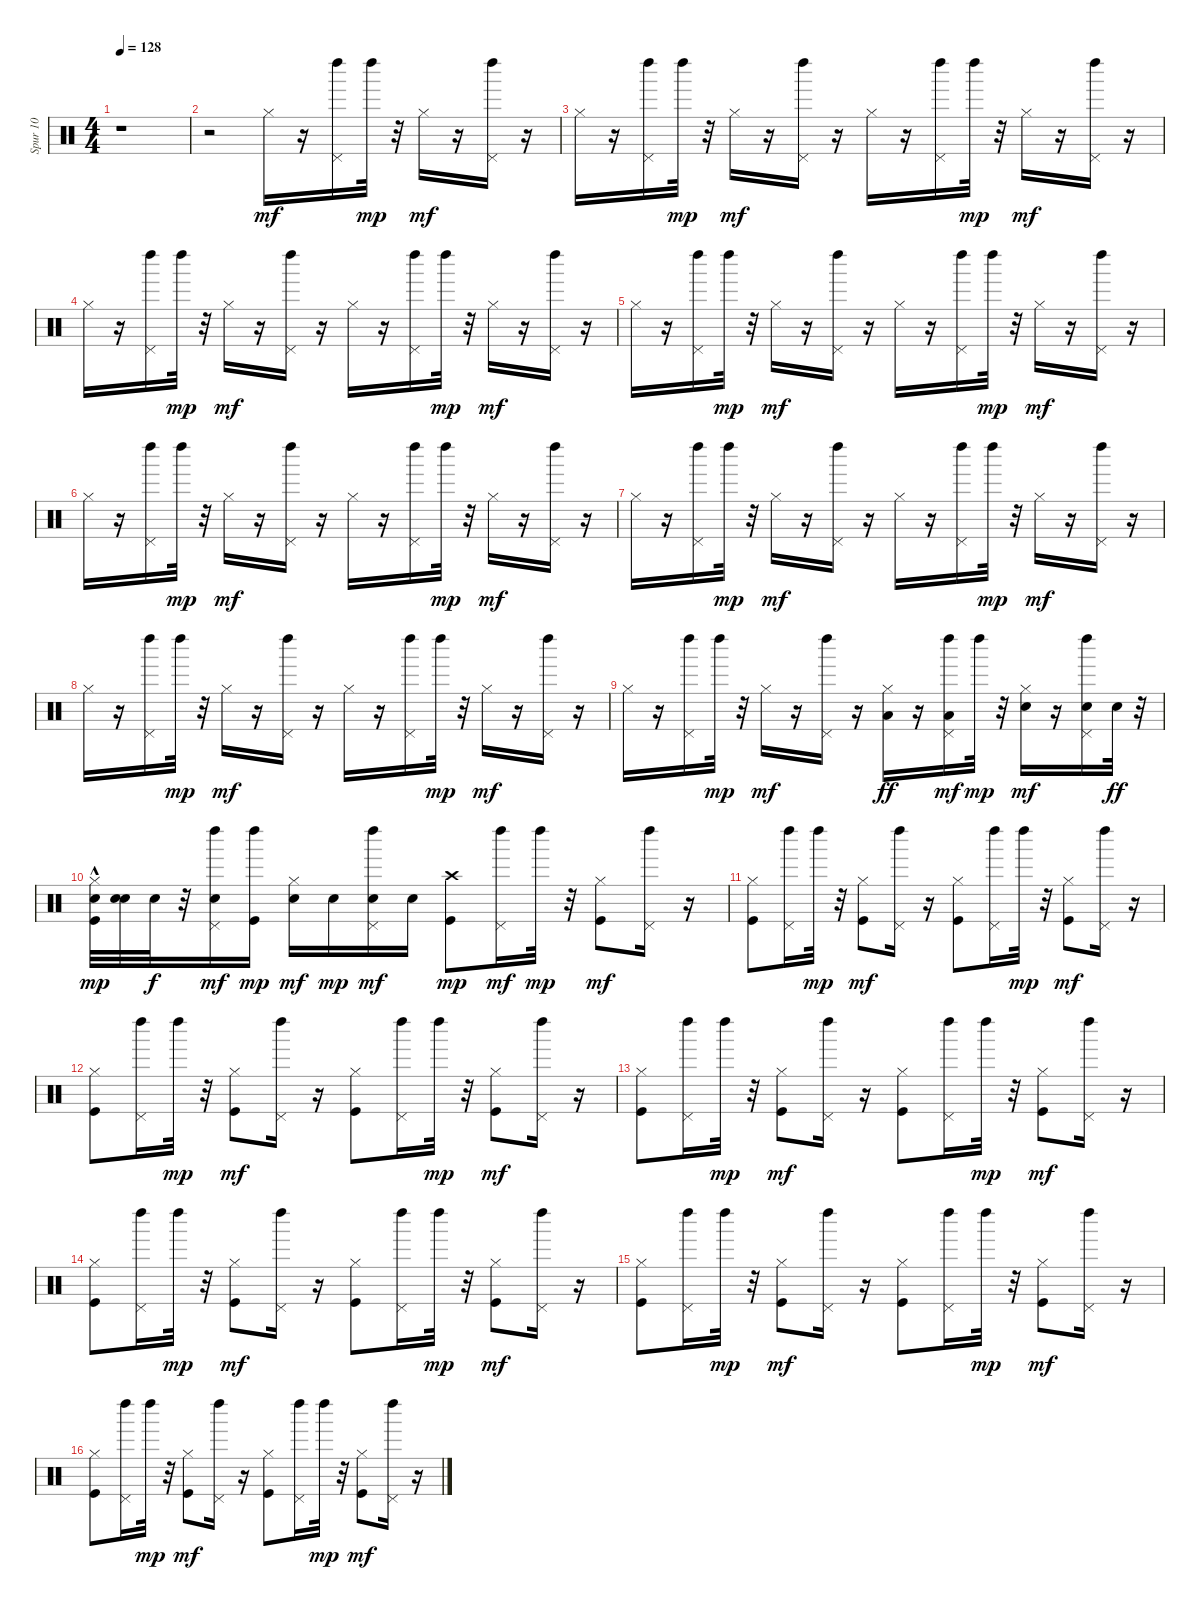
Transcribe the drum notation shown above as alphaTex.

\track ("Spur 10" "Spur 10") {instrument percussion}
\staff {score}
\articulation defaults
\ts (4 4)
\tempo 128
\clef neutral
\ks c
r.1{dy mf} |
r.2 "Hi-Hat (closed)".16 r.16 ("Pedal Hi-Hat (hit)" "Left Maraca (hit)").16 "Left Maraca (hit)".32{dy mp} r.32 "Hi-Hat (closed)".16{dy mf} r.16 ("Pedal Hi-Hat (hit)" "Left Maraca (hit)").16 r.16 |
"Hi-Hat (closed)".16 r.16 ("Pedal Hi-Hat (hit)" "Left Maraca (hit)").16 "Left Maraca (hit)".32{dy mp} r.32 "Hi-Hat (closed)".16{dy mf} r.16 ("Pedal Hi-Hat (hit)" "Left Maraca (hit)").16 r.16 "Hi-Hat (closed)".16 r.16 ("Pedal Hi-Hat (hit)" "Left Maraca (hit)").16 "Left Maraca (hit)".32{dy mp} r.32 "Hi-Hat (closed)".16{dy mf} r.16 ("Pedal Hi-Hat (hit)" "Left Maraca (hit)").16 r.16 |
"Hi-Hat (closed)".16 r.16 ("Pedal Hi-Hat (hit)" "Left Maraca (hit)").16 "Left Maraca (hit)".32{dy mp} r.32 "Hi-Hat (closed)".16{dy mf} r.16 ("Pedal Hi-Hat (hit)" "Left Maraca (hit)").16 r.16 "Hi-Hat (closed)".16 r.16 ("Pedal Hi-Hat (hit)" "Left Maraca (hit)").16 "Left Maraca (hit)".32{dy mp} r.32 "Hi-Hat (closed)".16{dy mf} r.16 ("Pedal Hi-Hat (hit)" "Left Maraca (hit)").16 r.16 |
"Hi-Hat (closed)".16 r.16 ("Pedal Hi-Hat (hit)" "Left Maraca (hit)").16 "Left Maraca (hit)".32{dy mp} r.32 "Hi-Hat (closed)".16{dy mf} r.16 ("Pedal Hi-Hat (hit)" "Left Maraca (hit)").16 r.16 "Hi-Hat (closed)".16 r.16 ("Pedal Hi-Hat (hit)" "Left Maraca (hit)").16 "Left Maraca (hit)".32{dy mp} r.32 "Hi-Hat (closed)".16{dy mf} r.16 ("Pedal Hi-Hat (hit)" "Left Maraca (hit)").16 r.16 |
"Hi-Hat (closed)".16 r.16 ("Pedal Hi-Hat (hit)" "Left Maraca (hit)").16 "Left Maraca (hit)".32{dy mp} r.32 "Hi-Hat (closed)".16{dy mf} r.16 ("Pedal Hi-Hat (hit)" "Left Maraca (hit)").16 r.16 "Hi-Hat (closed)".16 r.16 ("Pedal Hi-Hat (hit)" "Left Maraca (hit)").16 "Left Maraca (hit)".32{dy mp} r.32 "Hi-Hat (closed)".16{dy mf} r.16 ("Pedal Hi-Hat (hit)" "Left Maraca (hit)").16 r.16 |
"Hi-Hat (closed)".16 r.16 ("Pedal Hi-Hat (hit)" "Left Maraca (hit)").16 "Left Maraca (hit)".32{dy mp} r.32 "Hi-Hat (closed)".16{dy mf} r.16 ("Pedal Hi-Hat (hit)" "Left Maraca (hit)").16 r.16 "Hi-Hat (closed)".16 r.16 ("Pedal Hi-Hat (hit)" "Left Maraca (hit)").16 "Left Maraca (hit)".32{dy mp} r.32 "Hi-Hat (closed)".16{dy mf} r.16 ("Pedal Hi-Hat (hit)" "Left Maraca (hit)").16 r.16 |
"Hi-Hat (closed)".16 r.16 ("Pedal Hi-Hat (hit)" "Left Maraca (hit)").16 "Left Maraca (hit)".32{dy mp} r.32 "Hi-Hat (closed)".16{dy mf} r.16 ("Pedal Hi-Hat (hit)" "Left Maraca (hit)").16 r.16 "Hi-Hat (closed)".16 r.16 ("Pedal Hi-Hat (hit)" "Left Maraca (hit)").16 "Left Maraca (hit)".32{dy mp} r.32 "Hi-Hat (closed)".16{dy mf} r.16 ("Pedal Hi-Hat (hit)" "Left Maraca (hit)").16 r.16 |
"Hi-Hat (closed)".16 r.16 ("Pedal Hi-Hat (hit)" "Left Maraca (hit)").16 "Left Maraca (hit)".32{dy mp} r.32 "Hi-Hat (closed)".16{dy mf} r.16 ("Pedal Hi-Hat (hit)" "Left Maraca (hit)").16 r.16 ("Hi-Hat (closed)" "Low Tom (hit)").16{dy ff} r.16 ("Pedal Hi-Hat (hit)" "Low Tom (hit)" "Left Maraca (hit)").16{dy mf} "Left Maraca (hit)".32{dy mp} r.32 ("Electric Snare (hit)" "Hi-Hat (closed)").16{dy mf} r.16 ("Pedal Hi-Hat (hit)" "Electric Snare (hit)" "Left Maraca (hit)").16 "Electric Snare (hit)".32{dy ff} r.32 |
("Kick (hit)"{hac} "Hi-Hat (closed)" "Electric Snare (hit)").32{dy mp} ("Electric Snare (hit)" "Electric Snare (hit)").32 "Electric Snare (hit)".32{dy f} r.32 ("Electric Snare (hit)" "Pedal Hi-Hat (hit)" "Left Maraca (hit)").16{dy mf} ("Kick (hit)" "Left Maraca (hit)").16{dy mp} ("Electric Snare (hit)" "Hi-Hat (closed)").16{dy mf} "Electric Snare (hit)".16{dy mp} ("Electric Snare (hit)" "Pedal Hi-Hat (hit)" "Left Maraca (hit)").16{dy mf} "Electric Snare (hit)".16 ("Kick (hit)" "Crash high (hit)").8{dy mp} ("Pedal Hi-Hat (hit)" "Left Maraca (hit)").16{dy mf} "Left Maraca (hit)".32{dy mp} r.32 ("Kick (hit)" "Hi-Hat (closed)").8{dy mf} ("Pedal Hi-Hat (hit)" "Left Maraca (hit)").16 r.16 |
("Kick (hit)" "Hi-Hat (closed)").8 ("Pedal Hi-Hat (hit)" "Left Maraca (hit)").16 "Left Maraca (hit)".32{dy mp} r.32 ("Kick (hit)" "Hi-Hat (closed)").8{dy mf} ("Pedal Hi-Hat (hit)" "Left Maraca (hit)").16 r.16 ("Kick (hit)" "Hi-Hat (closed)").8 ("Pedal Hi-Hat (hit)" "Left Maraca (hit)").16 "Left Maraca (hit)".32{dy mp} r.32 ("Kick (hit)" "Hi-Hat (closed)").8{dy mf} ("Pedal Hi-Hat (hit)" "Left Maraca (hit)").16 r.16 |
("Kick (hit)" "Hi-Hat (closed)").8 ("Pedal Hi-Hat (hit)" "Left Maraca (hit)").16 "Left Maraca (hit)".32{dy mp} r.32 ("Kick (hit)" "Hi-Hat (closed)").8{dy mf} ("Pedal Hi-Hat (hit)" "Left Maraca (hit)").16 r.16 ("Kick (hit)" "Hi-Hat (closed)").8 ("Pedal Hi-Hat (hit)" "Left Maraca (hit)").16 "Left Maraca (hit)".32{dy mp} r.32 ("Kick (hit)" "Hi-Hat (closed)").8{dy mf} ("Pedal Hi-Hat (hit)" "Left Maraca (hit)").16 r.16 |
("Kick (hit)" "Hi-Hat (closed)").8 ("Pedal Hi-Hat (hit)" "Left Maraca (hit)").16 "Left Maraca (hit)".32{dy mp} r.32 ("Kick (hit)" "Hi-Hat (closed)").8{dy mf} ("Pedal Hi-Hat (hit)" "Left Maraca (hit)").16 r.16 ("Kick (hit)" "Hi-Hat (closed)").8 ("Pedal Hi-Hat (hit)" "Left Maraca (hit)").16 "Left Maraca (hit)".32{dy mp} r.32 ("Kick (hit)" "Hi-Hat (closed)").8{dy mf} ("Pedal Hi-Hat (hit)" "Left Maraca (hit)").16 r.16 |
("Kick (hit)" "Hi-Hat (closed)").8 ("Pedal Hi-Hat (hit)" "Left Maraca (hit)").16 "Left Maraca (hit)".32{dy mp} r.32 ("Kick (hit)" "Hi-Hat (closed)").8{dy mf} ("Pedal Hi-Hat (hit)" "Left Maraca (hit)").16 r.16 ("Kick (hit)" "Hi-Hat (closed)").8 ("Pedal Hi-Hat (hit)" "Left Maraca (hit)").16 "Left Maraca (hit)".32{dy mp} r.32 ("Kick (hit)" "Hi-Hat (closed)").8{dy mf} ("Pedal Hi-Hat (hit)" "Left Maraca (hit)").16 r.16 |
("Kick (hit)" "Hi-Hat (closed)").8 ("Pedal Hi-Hat (hit)" "Left Maraca (hit)").16 "Left Maraca (hit)".32{dy mp} r.32 ("Kick (hit)" "Hi-Hat (closed)").8{dy mf} ("Pedal Hi-Hat (hit)" "Left Maraca (hit)").16 r.16 ("Kick (hit)" "Hi-Hat (closed)").8 ("Pedal Hi-Hat (hit)" "Left Maraca (hit)").16 "Left Maraca (hit)".32{dy mp} r.32 ("Kick (hit)" "Hi-Hat (closed)").8{dy mf} ("Pedal Hi-Hat (hit)" "Left Maraca (hit)").16 r.16 |
("Kick (hit)" "Hi-Hat (closed)").8 ("Pedal Hi-Hat (hit)" "Left Maraca (hit)").16 "Left Maraca (hit)".32{dy mp} r.32 ("Kick (hit)" "Hi-Hat (closed)").8{dy mf} ("Pedal Hi-Hat (hit)" "Left Maraca (hit)").16 r.16 ("Kick (hit)" "Hi-Hat (closed)").8 ("Pedal Hi-Hat (hit)" "Left Maraca (hit)").16 "Left Maraca (hit)".32{dy mp} r.32 ("Kick (hit)" "Hi-Hat (closed)").8{dy mf} ("Pedal Hi-Hat (hit)" "Left Maraca (hit)").16 r.16
